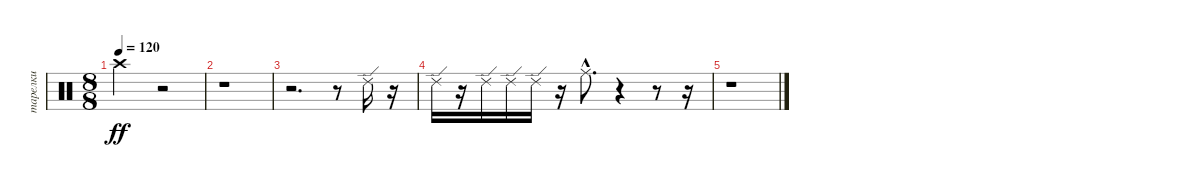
\track ("тарелки" "тарелки") {instrument percussion}
\staff {score}
\articulation defaults
\ts (8 8)
\tempo 120
\clef neutral
\ks c "Crash high (hit)".2{dy ff}
r.2 |
r.1 |
r.2{d} r.8 "Ride (edge) 2".16 r.16 |
"Ride (edge) 2".16 r.16 "Ride (edge) 2".16 "Ride (edge) 2".16 "Ride (edge) 2".16 r.16 "Ride (middle)"{hac}.8{d} r.4 r.8 r.16 |
r.1
